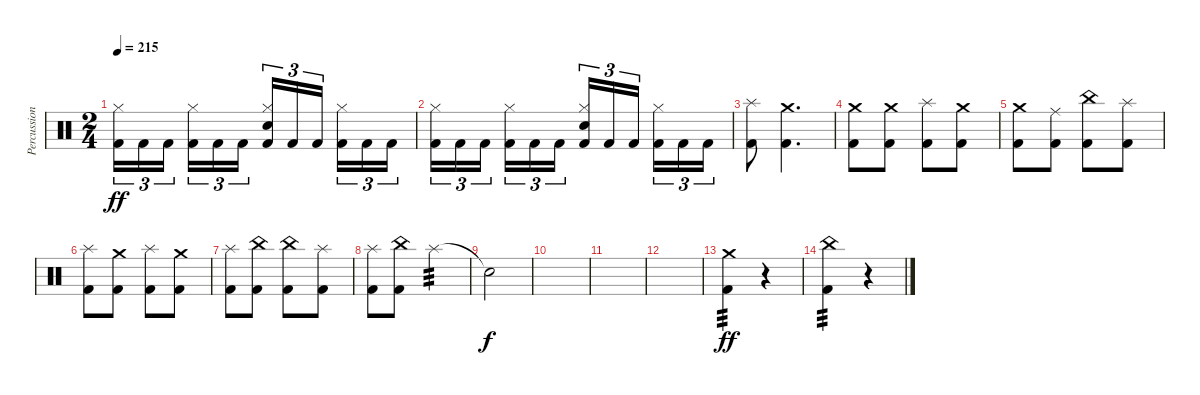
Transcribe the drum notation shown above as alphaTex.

\track ("Percussion" "Percussion") {instrument percussion}
\staff {score}
\articulation defaults
\ts (2 4)
\tempo 215
\clef neutral
\ks c
("Kick (hit) 2" "Hi-Hat (closed)").16{tu (3 2) dy ff} "Kick (hit) 2".16{tu (3 2)} "Kick (hit) 2".16{tu (3 2) beam splitsecondary} ("Kick (hit) 2" "Hi-Hat (closed)").16{tu (3 2)} "Kick (hit) 2".16{tu (3 2)} "Kick (hit) 2".16{tu (3 2)} ("Kick (hit) 2" "Snare (hit) 2" "Hi-Hat (closed)").16{tu (3 2)} "Kick (hit) 2".16{tu (3 2)} "Kick (hit) 2".16{tu (3 2) beam splitsecondary} ("Kick (hit) 2" "Hi-Hat (closed)").16{tu (3 2)} "Kick (hit) 2".16{tu (3 2)} "Kick (hit) 2".16{tu (3 2)} |
("Kick (hit) 2" "Hi-Hat (closed)").16{tu (3 2)} "Kick (hit) 2".16{tu (3 2)} "Kick (hit) 2".16{tu (3 2) beam splitsecondary} ("Kick (hit) 2" "Hi-Hat (closed)").16{tu (3 2)} "Kick (hit) 2".16{tu (3 2)} "Kick (hit) 2".16{tu (3 2)} ("Kick (hit) 2" "Snare (hit) 2" "Hi-Hat (closed)").16{tu (3 2)} "Kick (hit) 2".16{tu (3 2)} "Kick (hit) 2".16{tu (3 2) beam splitsecondary} ("Kick (hit) 2" "Hi-Hat (closed)").16{tu (3 2)} "Kick (hit) 2".16{tu (3 2)} "Kick (hit) 2".16{tu (3 2)} |
("Kick (hit) 2" "Splash (hit)").8 ("Kick (hit) 2" "Crash medium (hit)").4{d} |
("Kick (hit) 2" "Crash medium (hit)").8 ("Kick (hit) 2" "Crash medium (hit)").8 ("Kick (hit) 2" "Splash (hit)").8 ("Kick (hit) 2" "Crash medium (hit)").8 |
("Kick (hit) 2" "Crash medium (hit)").8 ("Kick (hit) 2" "Ride (middle)").8 ("Kick (hit) 2" "China (hit)").8 ("Kick (hit) 2" "Splash (hit)").8 |
("Kick (hit) 2" "Splash (hit)").8 ("Kick (hit) 2" "Crash medium (hit)").8 ("Kick (hit) 2" "Splash (hit)").8 ("Kick (hit) 2" "Crash medium (hit)").8 |
("Kick (hit) 2" "Splash (hit)").8 ("Kick (hit) 2" "China (hit)").8 ("Kick (hit) 2" "China (hit)").8 ("Kick (hit) 2" "Splash (hit)").8 |
("Kick (hit) 2" "Splash (hit)").8 ("Kick (hit) 2" "China (hit)").8 "Splash (hit)".4{tp 3} |
"Snare (hit)"{t}.2{dy f} |
|
|
|
("Crash medium (hit)" "Kick (hit) 2").4{tp 3 dy ff} r.4 |
("China (hit)" "Kick (hit) 2").4{tp 3} r.4
